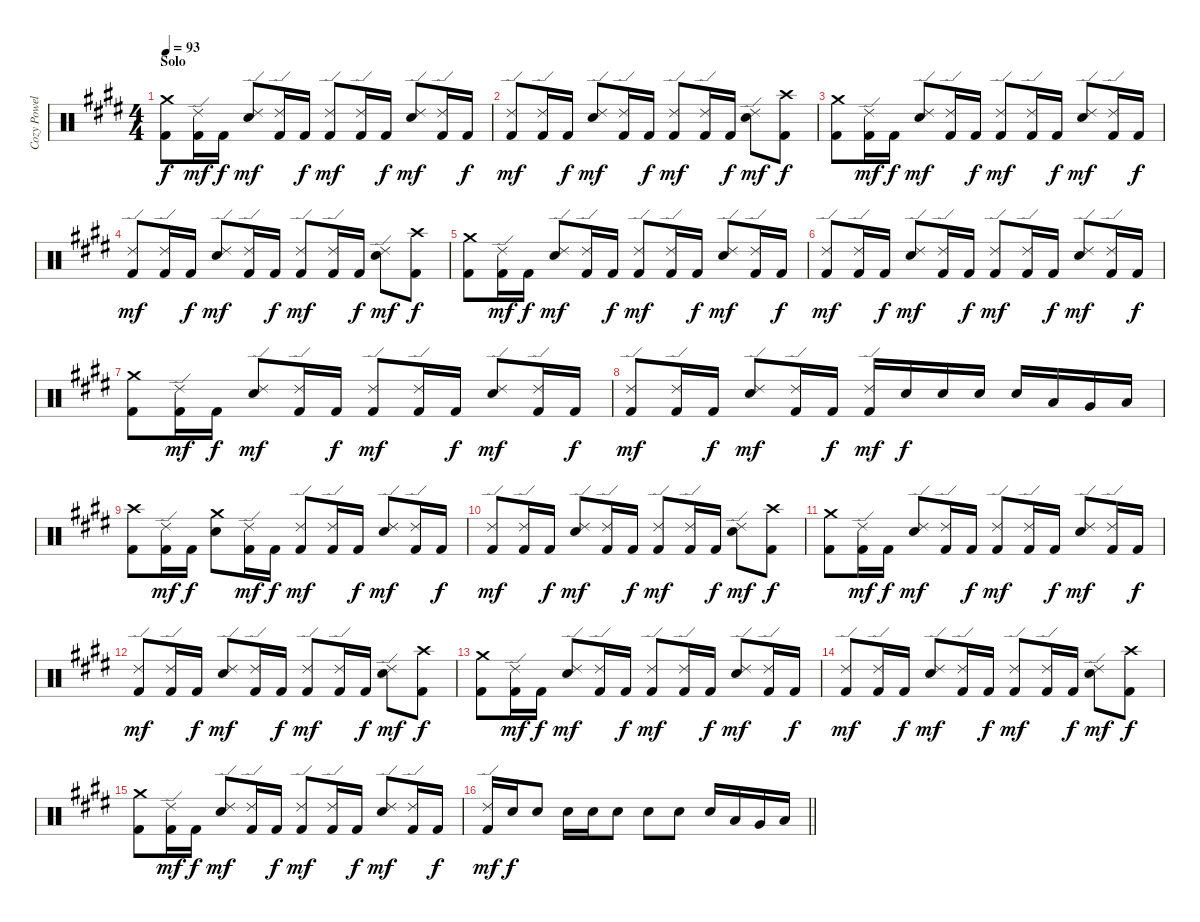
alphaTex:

\track ("Cozy Powell" "Cozy Powel") {instrument percussion}
\staff {score}
\articulation defaults
\ts (4 4)
\section ("" "Solo")
\tempo 93
\clef neutral
\ks c#minor
("Kick (hit) 2" "Crash medium (hit)").8{dy f} ("Kick (hit) 2" "Ride (edge) 2").16{dy mf} "Kick (hit) 2".16{dy f} ("Ride (edge) 2" "Snare (hit) 2").8{dy mf} ("Kick (hit) 2" "Ride (edge) 2").16 "Kick (hit) 2".16{dy f} ("Kick (hit) 2" "Ride (edge) 2").8{dy mf} ("Kick (hit) 2" "Ride (edge) 2").16 "Kick (hit) 2".16{dy f} ("Ride (edge) 2" "Snare (hit) 2").8{dy mf} ("Kick (hit) 2" "Ride (edge) 2").16 "Kick (hit) 2".16{dy f} |
("Kick (hit) 2" "Ride (edge) 2").8{dy mf} ("Kick (hit) 2" "Ride (edge) 2").16 "Kick (hit) 2".16{dy f} ("Ride (edge) 2" "Snare (hit) 2").8{dy mf} ("Kick (hit) 2" "Ride (edge) 2").16 "Kick (hit) 2".16{dy f} ("Kick (hit) 2" "Ride (edge) 2").8{dy mf} ("Kick (hit) 2" "Ride (edge) 2").16 "Kick (hit) 2".16{dy f} ("Ride (edge) 2" "Snare (hit) 2").8{dy mf} ("Kick (hit) 2" "Crash high (hit)").8{dy f} |
("Kick (hit) 2" "Crash medium (hit)").8 ("Kick (hit) 2" "Ride (edge) 2").16{dy mf} "Kick (hit) 2".16{dy f} ("Ride (edge) 2" "Snare (hit) 2").8{dy mf} ("Kick (hit) 2" "Ride (edge) 2").16 "Kick (hit) 2".16{dy f} ("Kick (hit) 2" "Ride (edge) 2").8{dy mf} ("Kick (hit) 2" "Ride (edge) 2").16 "Kick (hit) 2".16{dy f} ("Ride (edge) 2" "Snare (hit) 2").8{dy mf} ("Kick (hit) 2" "Ride (edge) 2").16 "Kick (hit) 2".16{dy f} |
("Kick (hit) 2" "Ride (edge) 2").8{dy mf} ("Kick (hit) 2" "Ride (edge) 2").16 "Kick (hit) 2".16{dy f} ("Ride (edge) 2" "Snare (hit) 2").8{dy mf} ("Kick (hit) 2" "Ride (edge) 2").16 "Kick (hit) 2".16{dy f} ("Kick (hit) 2" "Ride (edge) 2").8{dy mf} ("Kick (hit) 2" "Ride (edge) 2").16 "Kick (hit) 2".16{dy f} ("Ride (edge) 2" "Snare (hit) 2").8{dy mf} ("Kick (hit) 2" "Crash high (hit)").8{dy f} |
("Kick (hit) 2" "Crash medium (hit)").8 ("Kick (hit) 2" "Ride (edge) 2").16{dy mf} "Kick (hit) 2".16{dy f} ("Ride (edge) 2" "Snare (hit) 2").8{dy mf} ("Kick (hit) 2" "Ride (edge) 2").16 "Kick (hit) 2".16{dy f} ("Kick (hit) 2" "Ride (edge) 2").8{dy mf} ("Kick (hit) 2" "Ride (edge) 2").16 "Kick (hit) 2".16{dy f} ("Ride (edge) 2" "Snare (hit) 2").8{dy mf} ("Kick (hit) 2" "Ride (edge) 2").16 "Kick (hit) 2".16{dy f} |
("Kick (hit) 2" "Ride (edge) 2").8{dy mf} ("Kick (hit) 2" "Ride (edge) 2").16 "Kick (hit) 2".16{dy f} ("Ride (edge) 2" "Snare (hit) 2").8{dy mf} ("Kick (hit) 2" "Ride (edge) 2").16 "Kick (hit) 2".16{dy f} ("Kick (hit) 2" "Ride (edge) 2").8{dy mf} ("Kick (hit) 2" "Ride (edge) 2").16 "Kick (hit) 2".16{dy f} ("Ride (edge) 2" "Snare (hit) 2").8{dy mf} ("Kick (hit) 2" "Ride (edge) 2").16 "Kick (hit) 2".16{dy f} |
("Kick (hit) 2" "Crash medium (hit)").8 ("Kick (hit) 2" "Ride (edge) 2").16{dy mf} "Kick (hit) 2".16{dy f} ("Ride (edge) 2" "Snare (hit) 2").8{dy mf} ("Kick (hit) 2" "Ride (edge) 2").16 "Kick (hit) 2".16{dy f} ("Kick (hit) 2" "Ride (edge) 2").8{dy mf} ("Kick (hit) 2" "Ride (edge) 2").16 "Kick (hit) 2".16{dy f} ("Ride (edge) 2" "Snare (hit) 2").8{dy mf} ("Kick (hit) 2" "Ride (edge) 2").16 "Kick (hit) 2".16{dy f} |
("Kick (hit) 2" "Ride (edge) 2").8{dy mf} ("Kick (hit) 2" "Ride (edge) 2").16 "Kick (hit) 2".16{dy f} ("Ride (edge) 2" "Snare (hit) 2").8{dy mf} ("Kick (hit) 2" "Ride (edge) 2").16 "Kick (hit) 2".16{dy f} ("Kick (hit) 2" "Ride (edge) 2").16{dy mf} "Snare (hit) 2".16{dy f} "Snare (hit) 2".16 "Snare (hit) 2".16 "Snare (hit) 2".16 "Low Tom (hit)".16 "Very Low Tom (hit)".16 "Low Floor Tom (hit)".16 |
("Kick (hit) 2" "Crash high (hit)").8 ("Kick (hit) 2" "Ride (edge) 2").16{dy mf} "Kick (hit) 2".16{dy f} ("Crash medium (hit)" "Snare (hit) 2").8 ("Kick (hit) 2" "Ride (edge) 2").16{dy mf} "Kick (hit) 2".16{dy f} ("Kick (hit) 2" "Ride (edge) 2").8{dy mf} ("Kick (hit) 2" "Ride (edge) 2").16 "Kick (hit) 2".16{dy f} ("Ride (edge) 2" "Snare (hit) 2").8{dy mf} ("Kick (hit) 2" "Ride (edge) 2").16 "Kick (hit) 2".16{dy f} |
("Kick (hit) 2" "Ride (edge) 2").8{dy mf} ("Kick (hit) 2" "Ride (edge) 2").16 "Kick (hit) 2".16{dy f} ("Ride (edge) 2" "Snare (hit) 2").8{dy mf} ("Kick (hit) 2" "Ride (edge) 2").16 "Kick (hit) 2".16{dy f} ("Kick (hit) 2" "Ride (edge) 2").8{dy mf} ("Kick (hit) 2" "Ride (edge) 2").16 "Kick (hit) 2".16{dy f} ("Ride (edge) 2" "Snare (hit) 2").8{dy mf} ("Kick (hit) 2" "Crash high (hit)").8{dy f} |
("Kick (hit) 2" "Crash medium (hit)").8 ("Kick (hit) 2" "Ride (edge) 2").16{dy mf} "Kick (hit) 2".16{dy f} ("Ride (edge) 2" "Snare (hit) 2").8{dy mf} ("Kick (hit) 2" "Ride (edge) 2").16 "Kick (hit) 2".16{dy f} ("Kick (hit) 2" "Ride (edge) 2").8{dy mf} ("Kick (hit) 2" "Ride (edge) 2").16 "Kick (hit) 2".16{dy f} ("Ride (edge) 2" "Snare (hit) 2").8{dy mf} ("Kick (hit) 2" "Ride (edge) 2").16 "Kick (hit) 2".16{dy f} |
("Kick (hit) 2" "Ride (edge) 2").8{dy mf} ("Kick (hit) 2" "Ride (edge) 2").16 "Kick (hit) 2".16{dy f} ("Ride (edge) 2" "Snare (hit) 2").8{dy mf} ("Kick (hit) 2" "Ride (edge) 2").16 "Kick (hit) 2".16{dy f} ("Kick (hit) 2" "Ride (edge) 2").8{dy mf} ("Kick (hit) 2" "Ride (edge) 2").16 "Kick (hit) 2".16{dy f} ("Ride (edge) 2" "Snare (hit) 2").8{dy mf} ("Kick (hit) 2" "Crash high (hit)").8{dy f} |
("Kick (hit) 2" "Crash medium (hit)").8 ("Kick (hit) 2" "Ride (edge) 2").16{dy mf} "Kick (hit) 2".16{dy f} ("Ride (edge) 2" "Snare (hit) 2").8{dy mf} ("Kick (hit) 2" "Ride (edge) 2").16 "Kick (hit) 2".16{dy f} ("Kick (hit) 2" "Ride (edge) 2").8{dy mf} ("Kick (hit) 2" "Ride (edge) 2").16 "Kick (hit) 2".16{dy f} ("Ride (edge) 2" "Snare (hit) 2").8{dy mf} ("Kick (hit) 2" "Ride (edge) 2").16 "Kick (hit) 2".16{dy f} |
("Kick (hit) 2" "Ride (edge) 2").8{dy mf} ("Kick (hit) 2" "Ride (edge) 2").16 "Kick (hit) 2".16{dy f} ("Ride (edge) 2" "Snare (hit) 2").8{dy mf} ("Kick (hit) 2" "Ride (edge) 2").16 "Kick (hit) 2".16{dy f} ("Kick (hit) 2" "Ride (edge) 2").8{dy mf} ("Kick (hit) 2" "Ride (edge) 2").16 "Kick (hit) 2".16{dy f} ("Ride (edge) 2" "Snare (hit) 2").8{dy mf} ("Kick (hit) 2" "Crash high (hit)").8{dy f} |
("Kick (hit) 2" "Crash medium (hit)").8 ("Kick (hit) 2" "Ride (edge) 2").16{dy mf} "Kick (hit) 2".16{dy f} ("Ride (edge) 2" "Snare (hit) 2").8{dy mf} ("Kick (hit) 2" "Ride (edge) 2").16 "Kick (hit) 2".16{dy f} ("Kick (hit) 2" "Ride (edge) 2").8{dy mf} ("Kick (hit) 2" "Ride (edge) 2").16 "Kick (hit) 2".16{dy f} ("Ride (edge) 2" "Snare (hit) 2").8{dy mf} ("Kick (hit) 2" "Ride (edge) 2").16 "Kick (hit) 2".16{dy f} |
\barLineRight lightlight
("Kick (hit) 2" "Ride (edge) 2").16{dy mf} "Snare (hit) 2".16{dy f} "Snare (hit) 2".8 "Snare (hit) 2".16 "Snare (hit) 2".16 "Snare (hit) 2".8 "Snare (hit) 2".8 "Snare (hit) 2".8 "Snare (hit) 2".16 "Low Tom (hit)".16 "Very Low Tom (hit)".16 "Low Floor Tom (hit)".16
